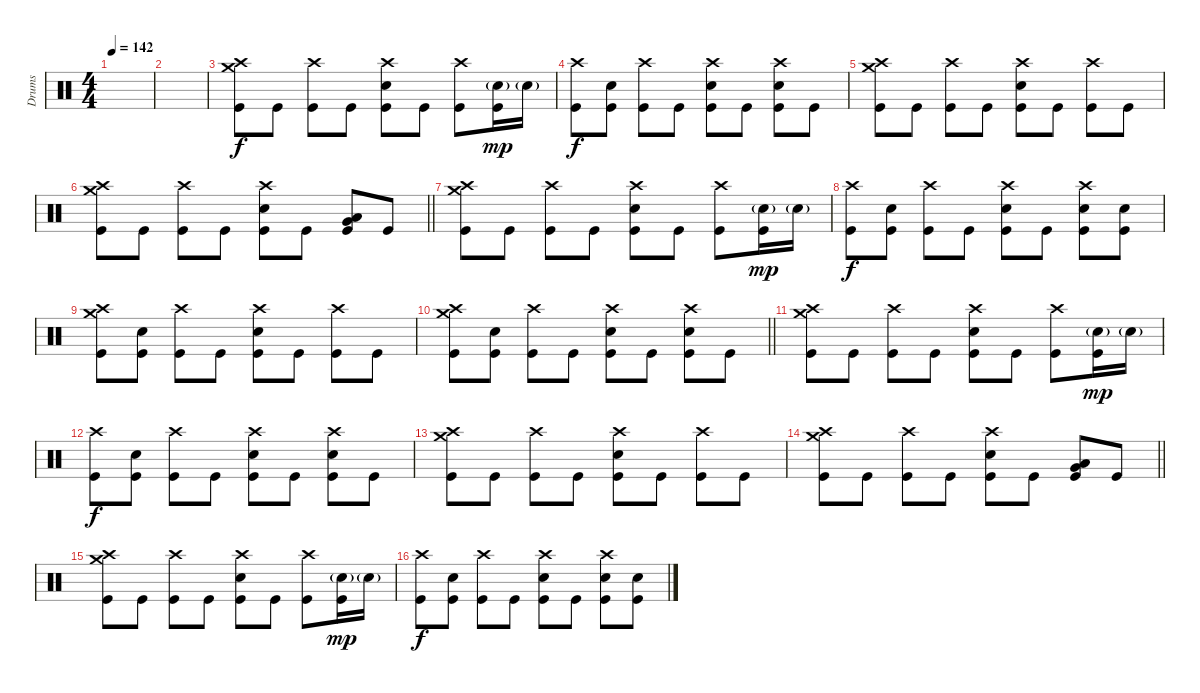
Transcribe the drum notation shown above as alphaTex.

\track ("Drums" "Drums") {instrument percussion}
\staff
\articulation defaults
\ts (4 4)
\tempo 142
\clef neutral
\ks c
|
|
("Crash high (hit)" "Crash medium (hit)" "Kick (hit)").8 "Kick (hit)".8 ("Crash high (hit)" "Kick (hit)").8 "Kick (hit)".8 ("Crash high (hit)" "Electric Snare (hit)" "Kick (hit)").8 "Kick (hit)".8 ("Crash high (hit)" "Kick (hit)").8 ("Electric Snare (hit)"{g} "Kick (hit)").16{dy mp} "Electric Snare (hit)"{g}.16 |
("Crash high (hit)" "Kick (hit)").8{dy f} ("Electric Snare (hit)" "Kick (hit)").8 ("Crash high (hit)" "Kick (hit)").8 "Kick (hit)".8 ("Crash high (hit)" "Electric Snare (hit)" "Kick (hit)").8 "Kick (hit)".8 ("Crash high (hit)" "Electric Snare (hit)" "Kick (hit)").8 "Kick (hit)".8 |
("Crash high (hit)" "Crash medium (hit)" "Kick (hit)").8 "Kick (hit)".8 ("Crash high (hit)" "Kick (hit)").8 "Kick (hit)".8 ("Crash high (hit)" "Electric Snare (hit)" "Kick (hit)").8 "Kick (hit)".8 ("Crash high (hit)" "Kick (hit)").8 "Kick (hit)".8 |
\barLineRight lightlight
("Crash high (hit)" "Crash medium (hit)" "Kick (hit)").8 "Kick (hit)".8 ("Crash high (hit)" "Kick (hit)").8 "Kick (hit)".8 ("Crash high (hit)" "Electric Snare (hit)" "Kick (hit)").8 "Kick (hit)".8 ("Very Low Tom (hit)" "Low Floor Tom (hit)" "Kick (hit)").8 "Kick (hit)".8 |
("Crash high (hit)" "Crash medium (hit)" "Kick (hit)").8 "Kick (hit)".8 ("Crash high (hit)" "Kick (hit)").8 "Kick (hit)".8 ("Crash high (hit)" "Electric Snare (hit)" "Kick (hit)").8 "Kick (hit)".8 ("Crash high (hit)" "Kick (hit)").8 ("Electric Snare (hit)"{g} "Kick (hit)").16{dy mp} "Electric Snare (hit)"{g}.16 |
("Crash high (hit)" "Kick (hit)").8{dy f} ("Electric Snare (hit)" "Kick (hit)").8 ("Crash high (hit)" "Kick (hit)").8 "Kick (hit)".8 ("Crash high (hit)" "Electric Snare (hit)" "Kick (hit)").8 "Kick (hit)".8 ("Crash high (hit)" "Electric Snare (hit)" "Kick (hit)").8 ("Electric Snare (hit)" "Kick (hit)").8 |
("Crash high (hit)" "Crash medium (hit)" "Kick (hit)").8 ("Electric Snare (hit)" "Kick (hit)").8 ("Crash high (hit)" "Kick (hit)").8 "Kick (hit)".8 ("Crash high (hit)" "Electric Snare (hit)" "Kick (hit)").8 "Kick (hit)".8 ("Crash high (hit)" "Kick (hit)").8 "Kick (hit)".8 |
\barLineRight lightlight
("Crash high (hit)" "Crash medium (hit)" "Kick (hit)").8 ("Electric Snare (hit)" "Kick (hit)").8 ("Crash high (hit)" "Kick (hit)").8 "Kick (hit)".8 ("Crash high (hit)" "Electric Snare (hit)" "Kick (hit)").8 "Kick (hit)".8 ("Crash high (hit)" "Electric Snare (hit)" "Kick (hit)").8 "Kick (hit)".8 |
("Crash high (hit)" "Crash medium (hit)" "Kick (hit)").8 "Kick (hit)".8 ("Crash high (hit)" "Kick (hit)").8 "Kick (hit)".8 ("Crash high (hit)" "Electric Snare (hit)" "Kick (hit)").8 "Kick (hit)".8 ("Crash high (hit)" "Kick (hit)").8 ("Electric Snare (hit)"{g} "Kick (hit)").16{dy mp} "Electric Snare (hit)"{g}.16 |
("Crash high (hit)" "Kick (hit)").8{dy f} ("Electric Snare (hit)" "Kick (hit)").8 ("Crash high (hit)" "Kick (hit)").8 "Kick (hit)".8 ("Crash high (hit)" "Electric Snare (hit)" "Kick (hit)").8 "Kick (hit)".8 ("Crash high (hit)" "Electric Snare (hit)" "Kick (hit)").8 "Kick (hit)".8 |
("Crash high (hit)" "Crash medium (hit)" "Kick (hit)").8 "Kick (hit)".8 ("Crash high (hit)" "Kick (hit)").8 "Kick (hit)".8 ("Crash high (hit)" "Electric Snare (hit)" "Kick (hit)").8 "Kick (hit)".8 ("Crash high (hit)" "Kick (hit)").8 "Kick (hit)".8 |
\barLineRight lightlight
("Crash high (hit)" "Crash medium (hit)" "Kick (hit)").8 "Kick (hit)".8 ("Crash high (hit)" "Kick (hit)").8 "Kick (hit)".8 ("Crash high (hit)" "Electric Snare (hit)" "Kick (hit)").8 "Kick (hit)".8 ("Very Low Tom (hit)" "Low Floor Tom (hit)" "Kick (hit)").8 "Kick (hit)".8 |
("Crash high (hit)" "Crash medium (hit)" "Kick (hit)").8 "Kick (hit)".8 ("Crash high (hit)" "Kick (hit)").8 "Kick (hit)".8 ("Crash high (hit)" "Electric Snare (hit)" "Kick (hit)").8 "Kick (hit)".8 ("Crash high (hit)" "Kick (hit)").8 ("Electric Snare (hit)"{g} "Kick (hit)").16{dy mp} "Electric Snare (hit)"{g}.16 |
("Crash high (hit)" "Kick (hit)").8{dy f} ("Electric Snare (hit)" "Kick (hit)").8 ("Crash high (hit)" "Kick (hit)").8 "Kick (hit)".8 ("Crash high (hit)" "Electric Snare (hit)" "Kick (hit)").8 "Kick (hit)".8 ("Crash high (hit)" "Electric Snare (hit)" "Kick (hit)").8 ("Electric Snare (hit)" "Kick (hit)").8
